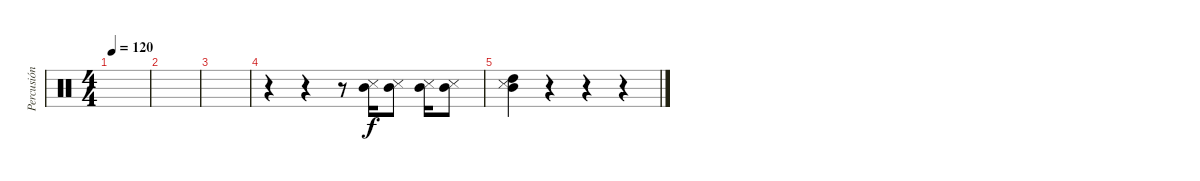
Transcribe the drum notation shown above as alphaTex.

\track ("Percusión" "Percusión") {instrument percussion}
\staff {score}
\articulation defaults
\ts (4 4)
\tempo 120
\clef neutral
\ks c
|
|
|
r.4 r.4 r.8 ("Snare (side stick) 3" "Mid Tom (hit)").16 ("Snare (side stick) 3" "Mid Tom (hit)").8 ("Snare (side stick) 3" "Mid Tom (hit)").16 ("Snare (side stick) 3" "Mid Tom (hit)").8 |
("Snare (side stick) 3" "Mid Tom (hit)" "High Tom (hit)").4 r.4 r.4 r.4
